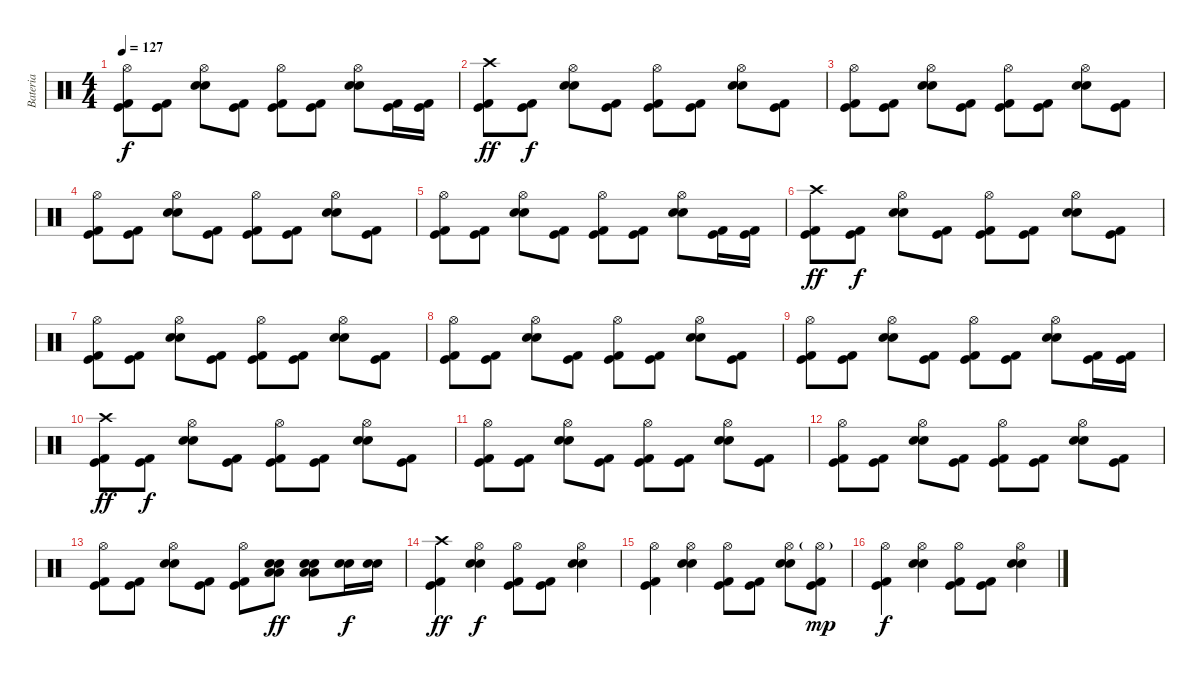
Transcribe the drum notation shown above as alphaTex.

\track ("Bateria" "Bateria") {instrument percussion}
\staff {score}
\articulation defaults
\ts (4 4)
\tempo 127
\clef neutral
\ks c
("Hi-Hat (open)" "Kick (hit) 2" "Kick (hit)").8{dy f} ("Kick (hit) 2" "Kick (hit)").8 ("Hi-Hat (open)" "Electric Snare (hit)" "Snare (hit) 2").8 ("Kick (hit) 2" "Kick (hit)").8 ("Hi-Hat (open)" "Kick (hit) 2" "Kick (hit)").8 ("Kick (hit) 2" "Kick (hit)").8 ("Hi-Hat (open)" "Electric Snare (hit)" "Snare (hit) 2").8 ("Kick (hit) 2" "Kick (hit)").16 ("Kick (hit) 2" "Kick (hit)").16 |
("Crash high (hit)" "Kick (hit) 2" "Kick (hit)").8{dy ff} ("Kick (hit) 2" "Kick (hit)").8{dy f} ("Hi-Hat (open)" "Electric Snare (hit)" "Snare (hit) 2").8 ("Kick (hit) 2" "Kick (hit)").8 ("Hi-Hat (open)" "Kick (hit) 2" "Kick (hit)").8 ("Kick (hit) 2" "Kick (hit)").8 ("Hi-Hat (open)" "Electric Snare (hit)" "Snare (hit) 2").8 ("Kick (hit) 2" "Kick (hit)").8 |
("Hi-Hat (open)" "Kick (hit) 2" "Kick (hit)").8 ("Kick (hit) 2" "Kick (hit)").8 ("Hi-Hat (open)" "Electric Snare (hit)" "Snare (hit) 2").8 ("Kick (hit) 2" "Kick (hit)").8 ("Hi-Hat (open)" "Kick (hit) 2" "Kick (hit)").8 ("Kick (hit) 2" "Kick (hit)").8 ("Hi-Hat (open)" "Electric Snare (hit)" "Snare (hit) 2").8 ("Kick (hit) 2" "Kick (hit)").8 |
("Hi-Hat (open)" "Kick (hit) 2" "Kick (hit)").8 ("Kick (hit) 2" "Kick (hit)").8 ("Hi-Hat (open)" "Electric Snare (hit)" "Snare (hit) 2").8 ("Kick (hit) 2" "Kick (hit)").8 ("Hi-Hat (open)" "Kick (hit) 2" "Kick (hit)").8 ("Kick (hit) 2" "Kick (hit)").8 ("Hi-Hat (open)" "Electric Snare (hit)" "Snare (hit) 2").8 ("Kick (hit) 2" "Kick (hit)").8 |
("Hi-Hat (open)" "Kick (hit) 2" "Kick (hit)").8 ("Kick (hit) 2" "Kick (hit)").8 ("Hi-Hat (open)" "Electric Snare (hit)" "Snare (hit) 2").8 ("Kick (hit) 2" "Kick (hit)").8 ("Hi-Hat (open)" "Kick (hit) 2" "Kick (hit)").8 ("Kick (hit) 2" "Kick (hit)").8 ("Hi-Hat (open)" "Electric Snare (hit)" "Snare (hit) 2").8 ("Kick (hit) 2" "Kick (hit)").16 ("Kick (hit) 2" "Kick (hit)").16 |
("Crash high (hit)" "Kick (hit) 2" "Kick (hit)").8{dy ff} ("Kick (hit) 2" "Kick (hit)").8{dy f} ("Hi-Hat (open)" "Electric Snare (hit)" "Snare (hit) 2").8 ("Kick (hit) 2" "Kick (hit)").8 ("Hi-Hat (open)" "Kick (hit) 2" "Kick (hit)").8 ("Kick (hit) 2" "Kick (hit)").8 ("Hi-Hat (open)" "Electric Snare (hit)" "Snare (hit) 2").8 ("Kick (hit) 2" "Kick (hit)").8 |
("Hi-Hat (open)" "Kick (hit) 2" "Kick (hit)").8 ("Kick (hit) 2" "Kick (hit)").8 ("Hi-Hat (open)" "Electric Snare (hit)" "Snare (hit) 2").8 ("Kick (hit) 2" "Kick (hit)").8 ("Hi-Hat (open)" "Kick (hit) 2" "Kick (hit)").8 ("Kick (hit) 2" "Kick (hit)").8 ("Hi-Hat (open)" "Electric Snare (hit)" "Snare (hit) 2").8 ("Kick (hit) 2" "Kick (hit)").8 |
("Hi-Hat (open)" "Kick (hit) 2" "Kick (hit)").8 ("Kick (hit) 2" "Kick (hit)").8 ("Hi-Hat (open)" "Electric Snare (hit)" "Snare (hit) 2").8 ("Kick (hit) 2" "Kick (hit)").8 ("Hi-Hat (open)" "Kick (hit) 2" "Kick (hit)").8 ("Kick (hit) 2" "Kick (hit)").8 ("Hi-Hat (open)" "Electric Snare (hit)" "Snare (hit) 2").8 ("Kick (hit) 2" "Kick (hit)").8 |
("Hi-Hat (open)" "Kick (hit) 2" "Kick (hit)").8 ("Kick (hit) 2" "Kick (hit)").8 ("Hi-Hat (open)" "Electric Snare (hit)" "Snare (hit) 2").8 ("Kick (hit) 2" "Kick (hit)").8 ("Hi-Hat (open)" "Kick (hit) 2" "Kick (hit)").8 ("Kick (hit) 2" "Kick (hit)").8 ("Hi-Hat (open)" "Electric Snare (hit)" "Snare (hit) 2").8 ("Kick (hit) 2" "Kick (hit)").16 ("Kick (hit) 2" "Kick (hit)").16 |
("Crash high (hit)" "Kick (hit) 2" "Kick (hit)").8{dy ff} ("Kick (hit) 2" "Kick (hit)").8{dy f} ("Hi-Hat (open)" "Electric Snare (hit)" "Snare (hit) 2").8 ("Kick (hit) 2" "Kick (hit)").8 ("Hi-Hat (open)" "Kick (hit) 2" "Kick (hit)").8 ("Kick (hit) 2" "Kick (hit)").8 ("Hi-Hat (open)" "Electric Snare (hit)" "Snare (hit) 2").8 ("Kick (hit) 2" "Kick (hit)").8 |
("Hi-Hat (open)" "Kick (hit) 2" "Kick (hit)").8 ("Kick (hit) 2" "Kick (hit)").8 ("Hi-Hat (open)" "Electric Snare (hit)" "Snare (hit) 2").8 ("Kick (hit) 2" "Kick (hit)").8 ("Hi-Hat (open)" "Kick (hit) 2" "Kick (hit)").8 ("Kick (hit) 2" "Kick (hit)").8 ("Hi-Hat (open)" "Electric Snare (hit)" "Snare (hit) 2").8 ("Kick (hit) 2" "Kick (hit)").8 |
("Hi-Hat (open)" "Kick (hit) 2" "Kick (hit)").8 ("Kick (hit) 2" "Kick (hit)").8 ("Hi-Hat (open)" "Electric Snare (hit)" "Snare (hit) 2").8 ("Kick (hit) 2" "Kick (hit)").8 ("Hi-Hat (open)" "Kick (hit) 2" "Kick (hit)").8 ("Kick (hit) 2" "Kick (hit)").8 ("Hi-Hat (open)" "Electric Snare (hit)" "Snare (hit) 2").8 ("Kick (hit) 2" "Kick (hit)").8 |
("Hi-Hat (open)" "Kick (hit) 2" "Kick (hit)").8 ("Kick (hit) 2" "Kick (hit)").8 ("Hi-Hat (open)" "Electric Snare (hit)" "Snare (hit) 2").8 ("Kick (hit) 2" "Kick (hit)").8 ("Hi-Hat (open)" "Kick (hit) 2" "Kick (hit)").8 ("Low Tom (hit)" "Low Floor Tom (hit)" "Electric Snare (hit)" "Snare (hit) 2").8{dy ff} ("Low Tom (hit)" "Low Floor Tom (hit)" "Electric Snare (hit)" "Snare (hit) 2").8 ("Electric Snare (hit)" "Snare (hit) 2").16{dy f} ("Electric Snare (hit)" "Snare (hit) 2").16 |
("Crash high (hit)" "Kick (hit) 2" "Kick (hit)").4{dy ff} ("Hi-Hat (open)" "Electric Snare (hit)" "Snare (hit) 2").4{dy f} ("Hi-Hat (open)" "Kick (hit) 2" "Kick (hit)").8 ("Kick (hit) 2" "Kick (hit)").8 ("Hi-Hat (open)" "Electric Snare (hit)" "Snare (hit) 2").4 |
("Hi-Hat (open)" "Kick (hit) 2" "Kick (hit)").4 ("Hi-Hat (open)" "Electric Snare (hit)" "Snare (hit) 2").4 ("Hi-Hat (open)" "Kick (hit) 2" "Kick (hit)").8 ("Kick (hit) 2" "Kick (hit)").8 ("Hi-Hat (open)" "Electric Snare (hit)" "Snare (hit) 2").8 ("Hi-Hat (open)"{g} "Kick (hit) 2" "Kick (hit)").8{dy mp} |
("Hi-Hat (open)" "Kick (hit) 2" "Kick (hit)").4{dy f} ("Hi-Hat (open)" "Electric Snare (hit)" "Snare (hit) 2").4 ("Hi-Hat (open)" "Kick (hit) 2" "Kick (hit)").8 ("Kick (hit) 2" "Kick (hit)").8 ("Hi-Hat (open)" "Electric Snare (hit)" "Snare (hit) 2").4
